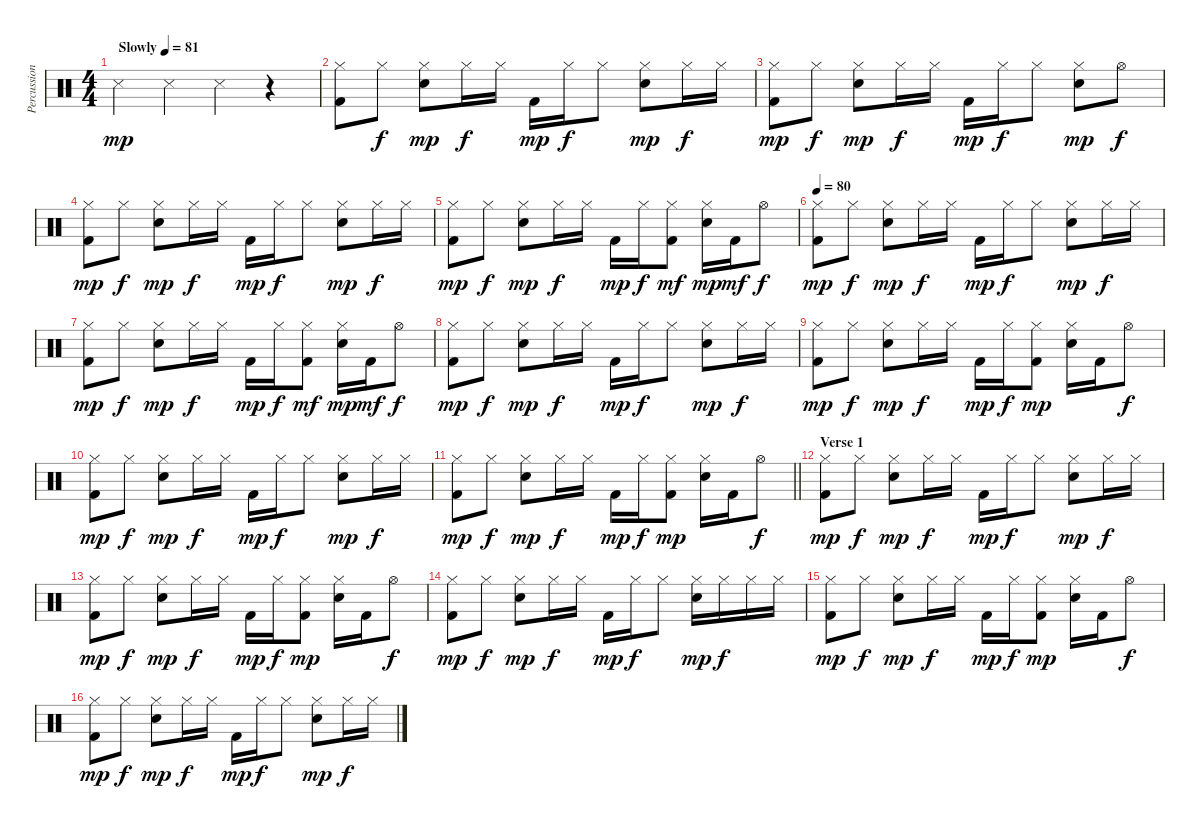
\track ("Percussion" "Percussion") {instrument percussion}
\staff {score}
\articulation defaults
\ts (4 4)
\tempo (81 "Slowly")
\clef neutral
\ks c "Metronome (hit)".4{dy mp} "Metronome (hit)".4 "Metronome (hit)".4
r.4 |
("Hi-Hat (closed)" "Kick (hit) 2").8 "Hi-Hat (closed)".8{dy f} ("Hi-Hat (closed)" "Electric Snare (hit)").8{dy mp} "Hi-Hat (closed)".16{dy f} "Hi-Hat (closed)".16 "Kick (hit) 2".16{dy mp} "Hi-Hat (closed)".16{dy f} "Hi-Hat (closed)".8 ("Hi-Hat (closed)" "Electric Snare (hit)").8{dy mp} "Hi-Hat (closed)".16{dy f} "Hi-Hat (closed)".16 |
("Hi-Hat (closed)" "Kick (hit) 2").8{dy mp} "Hi-Hat (closed)".8{dy f} ("Hi-Hat (closed)" "Electric Snare (hit)").8{dy mp} "Hi-Hat (closed)".16{dy f} "Hi-Hat (closed)".16 "Kick (hit) 2".16{dy mp} "Hi-Hat (closed)".16{dy f} "Hi-Hat (closed)".8 ("Hi-Hat (closed)" "Electric Snare (hit)").8{dy mp} "Hi-Hat (open)".8{dy f} |
("Hi-Hat (closed)" "Kick (hit) 2").8{dy mp} "Hi-Hat (closed)".8{dy f} ("Hi-Hat (closed)" "Electric Snare (hit)").8{dy mp} "Hi-Hat (closed)".16{dy f} "Hi-Hat (closed)".16 "Kick (hit) 2".16{dy mp} "Hi-Hat (closed)".16{dy f} "Hi-Hat (closed)".8 ("Hi-Hat (closed)" "Electric Snare (hit)").8{dy mp} "Hi-Hat (closed)".16{dy f} "Hi-Hat (closed)".16 |
("Hi-Hat (closed)" "Kick (hit) 2").8{dy mp} "Hi-Hat (closed)".8{dy f} ("Hi-Hat (closed)" "Electric Snare (hit)").8{dy mp} "Hi-Hat (closed)".16{dy f} "Hi-Hat (closed)".16 "Kick (hit) 2".16{dy mp} "Hi-Hat (closed)".16{dy f} ("Hi-Hat (closed)" "Kick (hit) 2").8{dy mf} ("Hi-Hat (closed)" "Electric Snare (hit)").16{dy mp} "Kick (hit) 2".16{dy mf} "Hi-Hat (open)".8{dy f} |
\tempo 80
("Hi-Hat (closed)" "Kick (hit) 2").8{dy mp} "Hi-Hat (closed)".8{dy f} ("Hi-Hat (closed)" "Electric Snare (hit)").8{dy mp} "Hi-Hat (closed)".16{dy f} "Hi-Hat (closed)".16 "Kick (hit) 2".16{dy mp} "Hi-Hat (closed)".16{dy f} "Hi-Hat (closed)".8 ("Hi-Hat (closed)" "Electric Snare (hit)").8{dy mp} "Hi-Hat (closed)".16{dy f} "Hi-Hat (closed)".16 |
("Hi-Hat (closed)" "Kick (hit) 2").8{dy mp} "Hi-Hat (closed)".8{dy f} ("Hi-Hat (closed)" "Electric Snare (hit)").8{dy mp} "Hi-Hat (closed)".16{dy f} "Hi-Hat (closed)".16 "Kick (hit) 2".16{dy mp} "Hi-Hat (closed)".16{dy f} ("Hi-Hat (closed)" "Kick (hit) 2").8{dy mf} ("Hi-Hat (closed)" "Electric Snare (hit)").16{dy mp} "Kick (hit) 2".16{dy mf} "Hi-Hat (open)".8{dy f} |
("Hi-Hat (closed)" "Kick (hit) 2").8{dy mp} "Hi-Hat (closed)".8{dy f} ("Hi-Hat (closed)" "Electric Snare (hit)").8{dy mp} "Hi-Hat (closed)".16{dy f} "Hi-Hat (closed)".16 "Kick (hit) 2".16{dy mp} "Hi-Hat (closed)".16{dy f} "Hi-Hat (closed)".8 ("Hi-Hat (closed)" "Electric Snare (hit)").8{dy mp} "Hi-Hat (closed)".16{dy f} "Hi-Hat (closed)".16 |
("Hi-Hat (closed)" "Kick (hit) 2").8{dy mp} "Hi-Hat (closed)".8{dy f} ("Hi-Hat (closed)" "Electric Snare (hit)").8{dy mp} "Hi-Hat (closed)".16{dy f} "Hi-Hat (closed)".16 "Kick (hit) 2".16{dy mp} "Hi-Hat (closed)".16{dy f} ("Hi-Hat (closed)" "Kick (hit) 2").8{dy mp} ("Hi-Hat (closed)" "Electric Snare (hit)").16 "Kick (hit) 2".16 "Hi-Hat (open)".8{dy f} |
("Hi-Hat (closed)" "Kick (hit) 2").8{dy mp} "Hi-Hat (closed)".8{dy f} ("Hi-Hat (closed)" "Electric Snare (hit)").8{dy mp} "Hi-Hat (closed)".16{dy f} "Hi-Hat (closed)".16 "Kick (hit) 2".16{dy mp} "Hi-Hat (closed)".16{dy f} "Hi-Hat (closed)".8 ("Hi-Hat (closed)" "Electric Snare (hit)").8{dy mp} "Hi-Hat (closed)".16{dy f} "Hi-Hat (closed)".16 |
\barLineRight lightlight
("Hi-Hat (closed)" "Kick (hit) 2").8{dy mp} "Hi-Hat (closed)".8{dy f} ("Hi-Hat (closed)" "Electric Snare (hit)").8{dy mp} "Hi-Hat (closed)".16{dy f} "Hi-Hat (closed)".16 "Kick (hit) 2".16{dy mp} "Hi-Hat (closed)".16{dy f} ("Hi-Hat (closed)" "Kick (hit) 2").8{dy mp} ("Hi-Hat (closed)" "Electric Snare (hit)").16 "Kick (hit) 2".16 "Hi-Hat (open)".8{dy f} |
\section ("" "Verse 1")
("Hi-Hat (closed)" "Kick (hit) 2").8{dy mp} "Hi-Hat (closed)".8{dy f} ("Hi-Hat (closed)" "Electric Snare (hit)").8{dy mp} "Hi-Hat (closed)".16{dy f} "Hi-Hat (closed)".16 "Kick (hit) 2".16{dy mp} "Hi-Hat (closed)".16{dy f} "Hi-Hat (closed)".8 ("Hi-Hat (closed)" "Electric Snare (hit)").8{dy mp} "Hi-Hat (closed)".16{dy f} "Hi-Hat (closed)".16 |
("Hi-Hat (closed)" "Kick (hit) 2").8{dy mp} "Hi-Hat (closed)".8{dy f} ("Hi-Hat (closed)" "Electric Snare (hit)").8{dy mp} "Hi-Hat (closed)".16{dy f} "Hi-Hat (closed)".16 "Kick (hit) 2".16{dy mp} "Hi-Hat (closed)".16{dy f} ("Hi-Hat (closed)" "Kick (hit) 2").8{dy mp} ("Hi-Hat (closed)" "Electric Snare (hit)").16 "Kick (hit) 2".16 "Hi-Hat (open)".8{dy f} |
("Hi-Hat (closed)" "Kick (hit) 2").8{dy mp} "Hi-Hat (closed)".8{dy f} ("Hi-Hat (closed)" "Electric Snare (hit)").8{dy mp} "Hi-Hat (closed)".16{dy f} "Hi-Hat (closed)".16 "Kick (hit) 2".16{dy mp} "Hi-Hat (closed)".16{dy f} "Hi-Hat (closed)".8 ("Hi-Hat (closed)" "Electric Snare (hit)").16{dy mp} "Hi-Hat (closed)".16{dy f} "Hi-Hat (closed)".16 "Hi-Hat (closed)".16 |
("Hi-Hat (closed)" "Kick (hit) 2").8{dy mp} "Hi-Hat (closed)".8{dy f} ("Hi-Hat (closed)" "Electric Snare (hit)").8{dy mp} "Hi-Hat (closed)".16{dy f} "Hi-Hat (closed)".16 "Kick (hit) 2".16{dy mp} "Hi-Hat (closed)".16{dy f} ("Hi-Hat (closed)" "Kick (hit) 2").8{dy mp} ("Hi-Hat (closed)" "Electric Snare (hit)").16 "Kick (hit) 2".16 "Hi-Hat (open)".8{dy f} |
("Hi-Hat (closed)" "Kick (hit) 2").8{dy mp} "Hi-Hat (closed)".8{dy f} ("Hi-Hat (closed)" "Electric Snare (hit)").8{dy mp} "Hi-Hat (closed)".16{dy f} "Hi-Hat (closed)".16 "Kick (hit) 2".16{dy mp} "Hi-Hat (closed)".16{dy f} "Hi-Hat (closed)".8 ("Hi-Hat (closed)" "Electric Snare (hit)").8{dy mp} "Hi-Hat (closed)".16{dy f} "Hi-Hat (closed)".16
